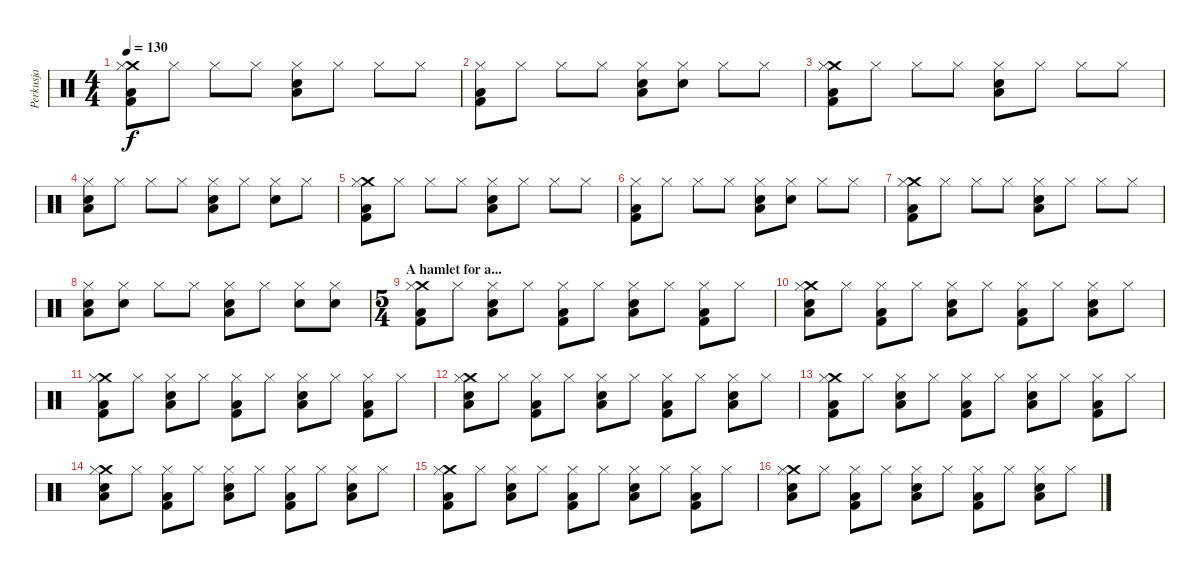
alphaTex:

\track ("Perkusja" "Perkusja") {instrument percussion}
\staff {score}
\articulation defaults
\ts (4 4)
\tempo 130
\clef neutral
\ks c
("Crash medium (hit)" "Kick (hit) 2" "Hi-Hat (closed)" "Low Tom (hit)").8{dy f} "Hi-Hat (closed)".8 "Hi-Hat (closed)".8 "Hi-Hat (closed)".8 ("Snare (hit) 2" "Hi-Hat (closed)" "Low Tom (hit)").8 "Hi-Hat (closed)".8 "Hi-Hat (closed)".8 "Hi-Hat (closed)".8 |
("Kick (hit) 2" "Hi-Hat (closed)" "Low Tom (hit)").8 "Hi-Hat (closed)".8 "Hi-Hat (closed)".8 "Hi-Hat (closed)".8 ("Snare (hit) 2" "Hi-Hat (closed)" "Low Tom (hit)").8 ("Snare (hit) 2" "Hi-Hat (closed)").8 "Hi-Hat (closed)".8 "Hi-Hat (closed)".8 |
("Crash medium (hit)" "Kick (hit) 2" "Hi-Hat (closed)" "Low Tom (hit)").8 "Hi-Hat (closed)".8 "Hi-Hat (closed)".8 "Hi-Hat (closed)".8 ("Snare (hit) 2" "Hi-Hat (closed)" "Low Tom (hit)").8 "Hi-Hat (closed)".8 "Hi-Hat (closed)".8 "Hi-Hat (closed)".8 |
("Snare (hit) 2" "Hi-Hat (closed)" "Low Tom (hit)").8 "Hi-Hat (closed)".8 "Hi-Hat (closed)".8 "Hi-Hat (closed)".8 ("Snare (hit) 2" "Hi-Hat (closed)" "Low Tom (hit)").8 "Hi-Hat (closed)".8 ("Snare (hit) 2" "Hi-Hat (closed)").8 "Hi-Hat (closed)".8 |
("Crash medium (hit)" "Kick (hit) 2" "Hi-Hat (closed)" "Low Tom (hit)").8 "Hi-Hat (closed)".8 "Hi-Hat (closed)".8 "Hi-Hat (closed)".8 ("Snare (hit) 2" "Hi-Hat (closed)" "Low Tom (hit)").8 "Hi-Hat (closed)".8 "Hi-Hat (closed)".8 "Hi-Hat (closed)".8 |
("Kick (hit) 2" "Hi-Hat (closed)" "Low Tom (hit)").8 "Hi-Hat (closed)".8 "Hi-Hat (closed)".8 "Hi-Hat (closed)".8 ("Snare (hit) 2" "Hi-Hat (closed)" "Low Tom (hit)").8 ("Snare (hit) 2" "Hi-Hat (closed)").8 "Hi-Hat (closed)".8 "Hi-Hat (closed)".8 |
("Crash medium (hit)" "Kick (hit) 2" "Hi-Hat (closed)" "Low Tom (hit)").8 "Hi-Hat (closed)".8 "Hi-Hat (closed)".8 "Hi-Hat (closed)".8 ("Snare (hit) 2" "Hi-Hat (closed)" "Low Tom (hit)").8 "Hi-Hat (closed)".8 "Hi-Hat (closed)".8 "Hi-Hat (closed)".8 |
("Snare (hit) 2" "Hi-Hat (closed)" "Low Tom (hit)").8 ("Snare (hit) 2" "Hi-Hat (closed)").8 "Hi-Hat (closed)".8 "Hi-Hat (closed)".8 ("Snare (hit) 2" "Hi-Hat (closed)" "Low Tom (hit)").8 "Hi-Hat (closed)".8 ("Snare (hit) 2" "Hi-Hat (closed)").8 ("Snare (hit) 2" "Hi-Hat (closed)").8 |
\ts (5 4)
\section ("" "A hamlet for a...")
("Crash medium (hit)" "Kick (hit) 2" "Hi-Hat (closed)" "Low Tom (hit)").8 "Hi-Hat (closed)".8 ("Snare (hit) 2" "Hi-Hat (closed)" "Low Tom (hit)").8 "Hi-Hat (closed)".8 ("Kick (hit) 2" "Hi-Hat (closed)" "Low Tom (hit)").8 "Hi-Hat (closed)".8 ("Snare (hit) 2" "Hi-Hat (closed)" "Low Tom (hit)").8 "Hi-Hat (closed)".8 ("Kick (hit) 2" "Hi-Hat (closed)" "Low Tom (hit)").8 "Hi-Hat (closed)".8 |
("Crash medium (hit)" "Snare (hit) 2" "Hi-Hat (closed)" "Low Tom (hit)").8 "Hi-Hat (closed)".8 ("Kick (hit) 2" "Hi-Hat (closed)" "Low Tom (hit)").8 "Hi-Hat (closed)".8 ("Snare (hit) 2" "Hi-Hat (closed)" "Low Tom (hit)").8 "Hi-Hat (closed)".8 ("Kick (hit) 2" "Hi-Hat (closed)" "Low Tom (hit)").8 "Hi-Hat (closed)".8 ("Snare (hit) 2" "Hi-Hat (closed)" "Low Tom (hit)").8 "Hi-Hat (closed)".8 |
("Crash medium (hit)" "Kick (hit) 2" "Hi-Hat (closed)" "Low Tom (hit)").8 "Hi-Hat (closed)".8 ("Snare (hit) 2" "Hi-Hat (closed)" "Low Tom (hit)").8 "Hi-Hat (closed)".8 ("Kick (hit) 2" "Hi-Hat (closed)" "Low Tom (hit)").8 "Hi-Hat (closed)".8 ("Snare (hit) 2" "Hi-Hat (closed)" "Low Tom (hit)").8 "Hi-Hat (closed)".8 ("Kick (hit) 2" "Hi-Hat (closed)" "Low Tom (hit)").8 "Hi-Hat (closed)".8 |
("Crash medium (hit)" "Snare (hit) 2" "Hi-Hat (closed)" "Low Tom (hit)").8 "Hi-Hat (closed)".8 ("Kick (hit) 2" "Hi-Hat (closed)" "Low Tom (hit)").8 "Hi-Hat (closed)".8 ("Snare (hit) 2" "Hi-Hat (closed)" "Low Tom (hit)").8 "Hi-Hat (closed)".8 ("Kick (hit) 2" "Hi-Hat (closed)" "Low Tom (hit)").8 "Hi-Hat (closed)".8 ("Snare (hit) 2" "Hi-Hat (closed)" "Low Tom (hit)").8 "Hi-Hat (closed)".8 |
("Crash medium (hit)" "Kick (hit) 2" "Hi-Hat (closed)" "Low Tom (hit)").8 "Hi-Hat (closed)".8 ("Snare (hit) 2" "Hi-Hat (closed)" "Low Tom (hit)").8 "Hi-Hat (closed)".8 ("Kick (hit) 2" "Hi-Hat (closed)" "Low Tom (hit)").8 "Hi-Hat (closed)".8 ("Snare (hit) 2" "Hi-Hat (closed)" "Low Tom (hit)").8 "Hi-Hat (closed)".8 ("Kick (hit) 2" "Hi-Hat (closed)" "Low Tom (hit)").8 "Hi-Hat (closed)".8 |
("Crash medium (hit)" "Snare (hit) 2" "Hi-Hat (closed)" "Low Tom (hit)").8 "Hi-Hat (closed)".8 ("Kick (hit) 2" "Hi-Hat (closed)" "Low Tom (hit)").8 "Hi-Hat (closed)".8 ("Snare (hit) 2" "Hi-Hat (closed)" "Low Tom (hit)").8 "Hi-Hat (closed)".8 ("Kick (hit) 2" "Hi-Hat (closed)" "Low Tom (hit)").8 "Hi-Hat (closed)".8 ("Snare (hit) 2" "Hi-Hat (closed)" "Low Tom (hit)").8 "Hi-Hat (closed)".8 |
("Crash medium (hit)" "Kick (hit) 2" "Hi-Hat (closed)" "Low Tom (hit)").8 "Hi-Hat (closed)".8 ("Snare (hit) 2" "Hi-Hat (closed)" "Low Tom (hit)").8 "Hi-Hat (closed)".8 ("Kick (hit) 2" "Hi-Hat (closed)" "Low Tom (hit)").8 "Hi-Hat (closed)".8 ("Snare (hit) 2" "Hi-Hat (closed)" "Low Tom (hit)").8 "Hi-Hat (closed)".8 ("Kick (hit) 2" "Hi-Hat (closed)" "Low Tom (hit)").8 "Hi-Hat (closed)".8 |
("Crash medium (hit)" "Snare (hit) 2" "Hi-Hat (closed)" "Low Tom (hit)").8 "Hi-Hat (closed)".8 ("Kick (hit) 2" "Hi-Hat (closed)" "Low Tom (hit)").8 "Hi-Hat (closed)".8 ("Snare (hit) 2" "Hi-Hat (closed)" "Low Tom (hit)").8 "Hi-Hat (closed)".8 ("Kick (hit) 2" "Hi-Hat (closed)" "Low Tom (hit)").8 "Hi-Hat (closed)".8 ("Snare (hit) 2" "Hi-Hat (closed)" "Low Tom (hit)").8 "Hi-Hat (closed)".8
